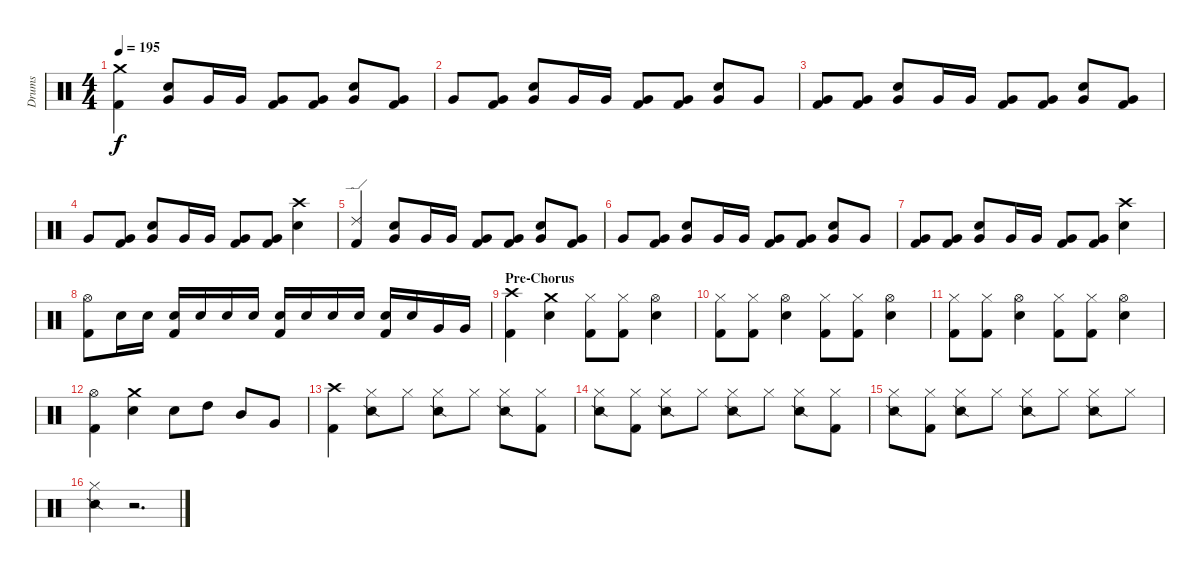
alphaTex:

\track ("Drums" "Drums") {instrument percussion}
\staff {score}
\articulation defaults
\ts (4 4)
\tempo 195
\clef neutral
\ks c
("Crash medium (hit)" "Kick (hit) 2").4{dy f} ("Snare (hit) 2" "Very Low Tom (hit)").8 "Very Low Tom (hit)".16 "Very Low Tom (hit)".16 ("Very Low Tom (hit)" "Kick (hit) 2").8 ("Very Low Tom (hit)" "Kick (hit) 2").8 ("Snare (hit) 2" "Very Low Tom (hit)").8 ("Very Low Tom (hit)" "Kick (hit) 2").8 |
"Very Low Tom (hit)".8 ("Very Low Tom (hit)" "Kick (hit) 2").8 ("Snare (hit) 2" "Very Low Tom (hit)").8 "Very Low Tom (hit)".16 "Very Low Tom (hit)".16 ("Very Low Tom (hit)" "Kick (hit) 2").8 ("Very Low Tom (hit)" "Kick (hit) 2").8 ("Snare (hit) 2" "Very Low Tom (hit)").8 "Very Low Tom (hit)".8 |
("Very Low Tom (hit)" "Kick (hit) 2").8 ("Very Low Tom (hit)" "Kick (hit) 2").8 ("Snare (hit) 2" "Very Low Tom (hit)").8 "Very Low Tom (hit)".16 "Very Low Tom (hit)".16 ("Very Low Tom (hit)" "Kick (hit) 2").8 ("Very Low Tom (hit)" "Kick (hit) 2").8 ("Snare (hit) 2" "Very Low Tom (hit)").8 ("Very Low Tom (hit)" "Kick (hit) 2").8 |
"Very Low Tom (hit)".8 ("Very Low Tom (hit)" "Kick (hit) 2").8 ("Snare (hit) 2" "Very Low Tom (hit)").8 "Very Low Tom (hit)".16 "Very Low Tom (hit)".16 ("Very Low Tom (hit)" "Kick (hit) 2").8 ("Very Low Tom (hit)" "Kick (hit) 2").8 ("Crash high (hit)" "Snare (hit) 2").4 |
("Ride (edge) 2" "Kick (hit) 2").4 ("Snare (hit) 2" "Very Low Tom (hit)").8 "Very Low Tom (hit)".16 "Very Low Tom (hit)".16 ("Very Low Tom (hit)" "Kick (hit) 2").8 ("Very Low Tom (hit)" "Kick (hit) 2").8 ("Snare (hit) 2" "Very Low Tom (hit)").8 ("Very Low Tom (hit)" "Kick (hit) 2").8 |
"Very Low Tom (hit)".8 ("Very Low Tom (hit)" "Kick (hit) 2").8 ("Snare (hit) 2" "Very Low Tom (hit)").8 "Very Low Tom (hit)".16 "Very Low Tom (hit)".16 ("Very Low Tom (hit)" "Kick (hit) 2").8 ("Very Low Tom (hit)" "Kick (hit) 2").8 ("Snare (hit) 2" "Very Low Tom (hit)").8 "Very Low Tom (hit)".8 |
("Very Low Tom (hit)" "Kick (hit) 2").8 ("Very Low Tom (hit)" "Kick (hit) 2").8 ("Snare (hit) 2" "Very Low Tom (hit)").8 "Very Low Tom (hit)".16 "Very Low Tom (hit)".16 ("Very Low Tom (hit)" "Kick (hit) 2").8 ("Very Low Tom (hit)" "Kick (hit) 2").8 ("Crash high (hit)" "Snare (hit) 2").4 |
("Hi-Hat (open)" "Kick (hit) 2").8 "Snare (hit) 2".16 "Snare (hit) 2".16 ("Snare (hit) 2" "Kick (hit) 2").16 "Snare (hit) 2".16 "Snare (hit) 2".16 "Snare (hit) 2".16 ("Snare (hit) 2" "Kick (hit) 2").16 "Snare (hit) 2".16 "Snare (hit) 2".16 "Snare (hit) 2".16 ("Snare (hit) 2" "Kick (hit) 2").16 "Snare (hit) 2".16 "Very Low Tom (hit)".16 "Very Low Tom (hit)".16 |
\section ("" "Pre-Chorus")
("Crash high (hit)" "Kick (hit) 2").4 ("Crash medium (hit)" "Snare (hit) 2").4 ("Hi-Hat (closed)" "Kick (hit) 2").8 ("Hi-Hat (closed)" "Kick (hit) 2").8 ("Hi-Hat (open)" "Snare (hit) 2").4 |
("Hi-Hat (closed)" "Kick (hit) 2").8 ("Hi-Hat (closed)" "Kick (hit) 2").8 ("Hi-Hat (open)" "Snare (hit) 2").4 ("Hi-Hat (closed)" "Kick (hit) 2").8 ("Hi-Hat (closed)" "Kick (hit) 2").8 ("Hi-Hat (open)" "Snare (hit) 2").4 |
("Hi-Hat (closed)" "Kick (hit) 2").8 ("Hi-Hat (closed)" "Kick (hit) 2").8 ("Hi-Hat (open)" "Snare (hit) 2").4 ("Hi-Hat (closed)" "Kick (hit) 2").8 ("Hi-Hat (closed)" "Kick (hit) 2").8 ("Hi-Hat (open)" "Snare (hit) 2").4 |
("Hi-Hat (open)" "Kick (hit) 2").4 ("Crash medium (hit)" "Snare (hit) 2").4 "Snare (hit) 2".8 "High Tom (hit)".8 "Mid Tom (hit)".8 "Very Low Tom (hit)".8 |
("Crash high (hit)" "Kick (hit) 2").4 ("Hi-Hat (closed)" "Snare (side stick) 2").8 "Hi-Hat (closed)".8 ("Hi-Hat (closed)" "Snare (side stick) 2").8 "Hi-Hat (closed)".8 ("Hi-Hat (closed)" "Snare (side stick) 2").8 ("Hi-Hat (closed)" "Kick (hit) 2").8 |
("Hi-Hat (closed)" "Snare (side stick) 2").8 ("Hi-Hat (closed)" "Kick (hit) 2").8 ("Hi-Hat (closed)" "Snare (side stick) 2").8 "Hi-Hat (closed)".8 ("Hi-Hat (closed)" "Snare (side stick) 2").8 "Hi-Hat (closed)".8 ("Hi-Hat (closed)" "Snare (side stick) 2").8 ("Hi-Hat (closed)" "Kick (hit) 2").8 |
("Hi-Hat (closed)" "Snare (side stick) 2").8 ("Hi-Hat (closed)" "Kick (hit) 2").8 ("Hi-Hat (closed)" "Snare (side stick) 2").8 "Hi-Hat (closed)".8 ("Hi-Hat (closed)" "Snare (side stick) 2").8 "Hi-Hat (closed)".8 ("Hi-Hat (closed)" "Snare (side stick) 2").8 "Hi-Hat (closed)".8 |
("Hi-Hat (closed)" "Snare (side stick) 2").4 r.2{d}
